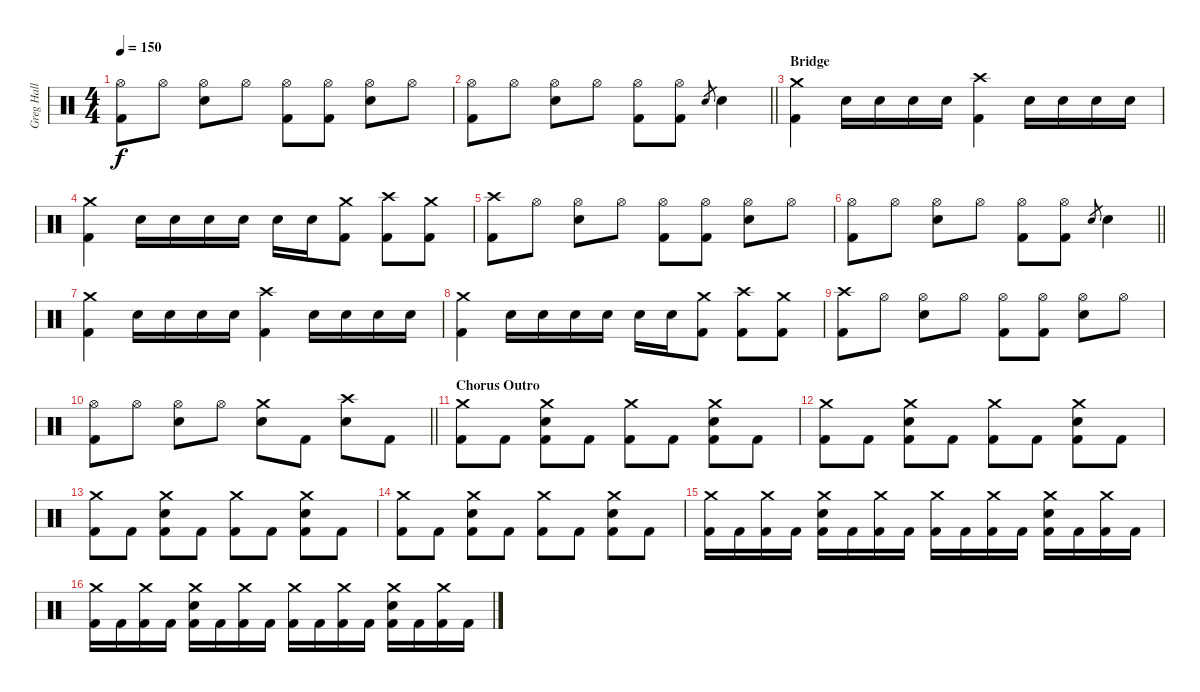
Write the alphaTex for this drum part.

\track ("Greg Hall" "Greg Hall") {instrument percussion}
\staff {score}
\articulation defaults
\ts (4 4)
\tempo 150
\clef neutral
\ks c
("Hi-Hat (open)" "Kick (hit) 2").8{dy f} "Hi-Hat (open)".8 ("Hi-Hat (open)" "Electric Snare (hit)").8 "Hi-Hat (open)".8 ("Hi-Hat (open)" "Kick (hit) 2").8 ("Hi-Hat (open)" "Kick (hit) 2").8 ("Hi-Hat (open)" "Electric Snare (hit)").8 "Hi-Hat (open)".8 |
\barLineRight lightlight
("Hi-Hat (open)" "Kick (hit) 2").8 "Hi-Hat (open)".8 ("Hi-Hat (open)" "Electric Snare (hit)").8 "Hi-Hat (open)".8 ("Hi-Hat (open)" "Kick (hit) 2").8 ("Hi-Hat (open)" "Kick (hit) 2").8 "Electric Snare (hit)".8{gr} "Electric Snare (hit)".4 |
\section ("" "Bridge")
("Crash medium (hit)" "Kick (hit) 2").4 "Electric Snare (hit)".16 "Electric Snare (hit)".16 "Electric Snare (hit)".16 "Electric Snare (hit)".16 ("Crash high (hit)" "Kick (hit) 2").4 "Electric Snare (hit)".16 "Electric Snare (hit)".16 "Electric Snare (hit)".16 "Electric Snare (hit)".16 |
("Crash medium (hit)" "Kick (hit) 2").4 "Electric Snare (hit)".16 "Electric Snare (hit)".16 "Electric Snare (hit)".16 "Electric Snare (hit)".16 "Electric Snare (hit)".16 "Electric Snare (hit)".16 ("Crash medium (hit)" "Kick (hit) 2").8 ("Crash high (hit)" "Kick (hit) 2").8 ("Crash medium (hit)" "Kick (hit) 2").8 |
("Crash high (hit)" "Kick (hit) 2").8 "Hi-Hat (open)".8 ("Hi-Hat (open)" "Electric Snare (hit)").8 "Hi-Hat (open)".8 ("Hi-Hat (open)" "Kick (hit) 2").8 ("Hi-Hat (open)" "Kick (hit) 2").8 ("Hi-Hat (open)" "Electric Snare (hit)").8 "Hi-Hat (open)".8 |
\barLineRight lightlight
("Hi-Hat (open)" "Kick (hit) 2").8 "Hi-Hat (open)".8 ("Hi-Hat (open)" "Electric Snare (hit)").8 "Hi-Hat (open)".8 ("Hi-Hat (open)" "Kick (hit) 2").8 ("Hi-Hat (open)" "Kick (hit) 2").8 "Electric Snare (hit)".8{gr} "Electric Snare (hit)".4 |
("Crash medium (hit)" "Kick (hit) 2").4 "Electric Snare (hit)".16 "Electric Snare (hit)".16 "Electric Snare (hit)".16 "Electric Snare (hit)".16 ("Crash high (hit)" "Kick (hit) 2").4 "Electric Snare (hit)".16 "Electric Snare (hit)".16 "Electric Snare (hit)".16 "Electric Snare (hit)".16 |
("Crash medium (hit)" "Kick (hit) 2").4 "Electric Snare (hit)".16 "Electric Snare (hit)".16 "Electric Snare (hit)".16 "Electric Snare (hit)".16 "Electric Snare (hit)".16 "Electric Snare (hit)".16 ("Crash medium (hit)" "Kick (hit) 2").8 ("Crash high (hit)" "Kick (hit) 2").8 ("Crash medium (hit)" "Kick (hit) 2").8 |
("Crash high (hit)" "Kick (hit) 2").8 "Hi-Hat (open)".8 ("Hi-Hat (open)" "Electric Snare (hit)").8 "Hi-Hat (open)".8 ("Hi-Hat (open)" "Kick (hit) 2").8 ("Hi-Hat (open)" "Kick (hit) 2").8 ("Hi-Hat (open)" "Electric Snare (hit)").8 "Hi-Hat (open)".8 |
\barLineRight lightlight
("Hi-Hat (open)" "Kick (hit) 2").8 "Hi-Hat (open)".8 ("Hi-Hat (open)" "Electric Snare (hit)").8 "Hi-Hat (open)".8 ("Crash medium (hit)" "Electric Snare (hit)").8 "Kick (hit) 2".8 ("Crash high (hit)" "Electric Snare (hit)").8 "Kick (hit) 2".8 |
\section ("" "Chorus Outro")
("Crash medium (hit)" "Kick (hit) 2").8 "Kick (hit) 2".8 ("Crash medium (hit)" "Electric Snare (hit)" "Kick (hit) 2").8 "Kick (hit) 2".8 ("Crash medium (hit)" "Kick (hit) 2").8 "Kick (hit) 2".8 ("Crash medium (hit)" "Electric Snare (hit)" "Kick (hit) 2").8 "Kick (hit) 2".8 |
("Crash medium (hit)" "Kick (hit) 2").8 "Kick (hit) 2".8 ("Crash medium (hit)" "Electric Snare (hit)" "Kick (hit) 2").8 "Kick (hit) 2".8 ("Crash medium (hit)" "Kick (hit) 2").8 "Kick (hit) 2".8 ("Crash medium (hit)" "Electric Snare (hit)" "Kick (hit) 2").8 "Kick (hit) 2".8 |
("Crash medium (hit)" "Kick (hit) 2").8 "Kick (hit) 2".8 ("Crash medium (hit)" "Electric Snare (hit)" "Kick (hit) 2").8 "Kick (hit) 2".8 ("Crash medium (hit)" "Kick (hit) 2").8 "Kick (hit) 2".8 ("Crash medium (hit)" "Electric Snare (hit)" "Kick (hit) 2").8 "Kick (hit) 2".8 |
("Crash medium (hit)" "Kick (hit) 2").8 "Kick (hit) 2".8 ("Crash medium (hit)" "Electric Snare (hit)" "Kick (hit) 2").8 "Kick (hit) 2".8 ("Crash medium (hit)" "Kick (hit) 2").8 "Kick (hit) 2".8 ("Crash medium (hit)" "Electric Snare (hit)" "Kick (hit) 2").8 "Kick (hit) 2".8 |
("Crash medium (hit)" "Kick (hit) 2").16 "Kick (hit) 2".16 ("Crash medium (hit)" "Kick (hit) 2").16 "Kick (hit) 2".16 ("Crash medium (hit)" "Electric Snare (hit)" "Kick (hit) 2").16 "Kick (hit) 2".16 ("Crash medium (hit)" "Kick (hit) 2").16 "Kick (hit) 2".16 ("Crash medium (hit)" "Kick (hit) 2").16 "Kick (hit) 2".16 ("Crash medium (hit)" "Kick (hit) 2").16 "Kick (hit) 2".16 ("Crash medium (hit)" "Electric Snare (hit)" "Kick (hit) 2").16 "Kick (hit) 2".16 ("Crash medium (hit)" "Kick (hit) 2").16 "Kick (hit) 2".16 |
("Crash medium (hit)" "Kick (hit) 2").16 "Kick (hit) 2".16 ("Crash medium (hit)" "Kick (hit) 2").16 "Kick (hit) 2".16 ("Crash medium (hit)" "Electric Snare (hit)" "Kick (hit) 2").16 "Kick (hit) 2".16 ("Crash medium (hit)" "Kick (hit) 2").16 "Kick (hit) 2".16 ("Crash medium (hit)" "Kick (hit) 2").16 "Kick (hit) 2".16 ("Crash medium (hit)" "Kick (hit) 2").16 "Kick (hit) 2".16 ("Crash medium (hit)" "Electric Snare (hit)" "Kick (hit) 2").16 "Kick (hit) 2".16 ("Crash medium (hit)" "Kick (hit) 2").16 "Kick (hit) 2".16
